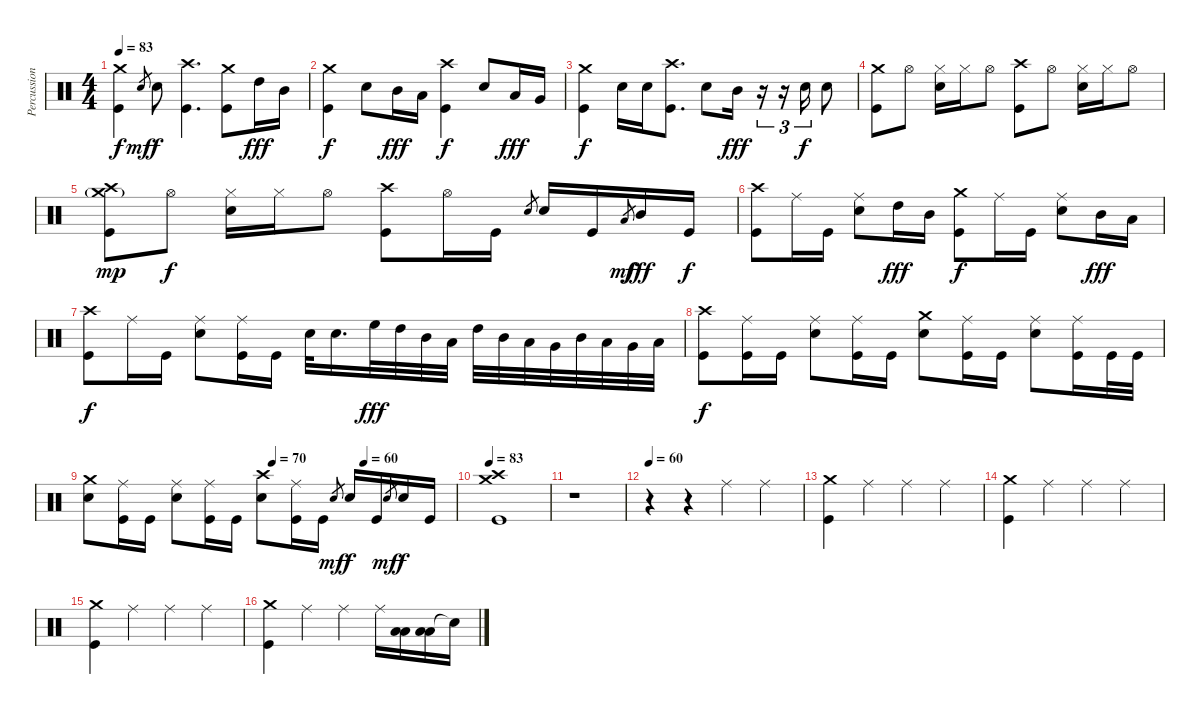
\track ("Percussions" "Percussion") {instrument percussion}
\staff {score}
\articulation defaults
\ts (4 4)
\tempo 83
\clef neutral
\ks c
("Crash medium (hit)" "Kick (hit)").4{dy f volume 16} "Electric Snare (hit)".8{gr dy mf} "Electric Snare (hit)".8{dy f} ("Crash high (hit)" "Kick (hit)").4{d} ("Crash medium (hit)" "Kick (hit)").8 "High Tom (hit)".16{dy fff volume 10} "Mid Tom (hit)".16 |
("Crash medium (hit)" "Kick (hit)").4{dy f volume 16} "Electric Snare (hit)".8 "Mid Tom (hit)".16{dy fff volume 10} "Low Tom (hit)".16 ("Crash high (hit)" "Kick (hit)").4{dy f volume 16} "Electric Snare (hit)".8 "Low Tom (hit)".16{dy fff volume 10} "Very Low Tom (hit)".16 |
("Crash medium (hit)" "Kick (hit)").4{dy f volume 16} "Electric Snare (hit)".16 "Electric Snare (hit)".16 ("Crash high (hit)" "Kick (hit)").8{d} "Electric Snare (hit)".8 "Mid Tom (hit)".16{dy fff volume 10} r.16{tu (3 2)} r.16{tu (3 2)} "Electric Snare (hit)".16{tu (3 2) dy f volume 16} "Electric Snare (hit)".8 |
("Crash medium (hit)" "Kick (hit)").8{volume 16} "Hi-Hat (open)".8 ("Hi-Hat (closed)" "Electric Snare (hit)").16 "Hi-Hat (closed)".16 "Hi-Hat (open)".8 ("Crash high (hit)" "Kick (hit)").8 "Hi-Hat (open)".8 ("Hi-Hat (closed)" "Electric Snare (hit)").16 "Hi-Hat (closed)".16 "Hi-Hat (open)".8 |
("Crash medium (hit)"{g} "Crash high (hit)" "Kick (hit)").8{dy mp} "Hi-Hat (open)".8{dy f} ("Hi-Hat (closed)" "Electric Snare (hit)").16 "Hi-Hat (closed)".16 "Hi-Hat (open)".8 ("Crash high (hit)" "Kick (hit)").8 "Hi-Hat (open)".16 "Kick (hit)".16 "Electric Snare (hit)".8{gr} "Electric Snare (hit)".16 "Kick (hit)".16 "Low Tom (hit)".8{gr dy mf} "Mid Tom (hit)".16{dy fff volume 10} "Kick (hit)".16{dy f} |
("Crash high (hit)" "Kick (hit)").8{volume 16} "Ride (middle)".16 "Kick (hit)".16 ("Ride (middle)" "Electric Snare (hit)").8 "High Tom (hit)".16{dy fff volume 10} "Mid Tom (hit)".16 ("Crash medium (hit)" "Kick (hit)").8{dy f volume 16} "Ride (middle)".16 "Kick (hit)".16 ("Ride (middle)" "Electric Snare (hit)").8 "Mid Tom (hit)".16{dy fff volume 10} "Low Tom (hit)".16 |
("Crash high (hit)" "Kick (hit)").8{dy f volume 16} "Ride (middle)".16 "Kick (hit)".16 ("Ride (middle)" "Electric Snare (hit)").8 ("Ride (middle)" "Kick (hit)").16 "Kick (hit)".16 "Electric Snare (hit)".32 "Electric Snare (hit)".16{d} "High Floor Tom (hit)".32{dy fff volume 10} "High Tom (hit)".32 "Mid Tom (hit)".32 "Low Tom (hit)".32 "High Tom (hit)".32 "Mid Tom (hit)".32 "Low Tom (hit)".32 "Very Low Tom (hit)".32 "Mid Tom (hit)".32 "Low Tom (hit)".32 "Very Low Tom (hit)".32 "Low Floor Tom (hit)".32 |
("Crash high (hit)" "Kick (hit)").8{dy f volume 16} ("Ride (middle)" "Kick (hit)").16 "Kick (hit)".16 ("Ride (middle)" "Electric Snare (hit)").8 ("Ride (middle)" "Kick (hit)").16 "Kick (hit)".16 ("Crash medium (hit)" "Electric Snare (hit)").8 ("Ride (middle)" "Kick (hit)").16 "Kick (hit)".16 ("Ride (middle)" "Electric Snare (hit)").8 ("Ride (middle)" "Kick (hit)").16 "Kick (hit)".32 "Kick (hit)".32 |
\tempo (70 0.5)
\tempo (60 0.75)
("Crash medium (hit)" "Electric Snare (hit)").8 ("Ride (middle)" "Kick (hit)").16 "Kick (hit)".16 ("Ride (middle)" "Electric Snare (hit)").8 ("Ride (middle)" "Kick (hit)").16 "Kick (hit)".16 ("Crash high (hit)" "Electric Snare (hit)").8 ("Ride (middle)" "Kick (hit)").16 "Kick (hit)".16 "Electric Snare (hit)".8{gr dy mf} "Electric Snare (hit)".16{dy f} "Kick (hit)".16 "Electric Snare (hit)".8{gr dy mf} "Electric Snare (hit)".16{dy f} "Kick (hit)".16 |
\tempo 83
("Crash medium (hit)" "Crash high (hit)" "Kick (hit)").1 |
r.1 |
\tempo 60
r.4 r.4 "Ride (middle)".4 "Ride (middle)".4 |
("Crash medium (hit)" "Kick (hit)").4{volume 16} "Ride (middle)".4 "Ride (middle)".4 "Ride (middle)".4 |
("Crash medium (hit)" "Kick (hit)").4 "Ride (middle)".4 "Ride (middle)".4 "Ride (middle)".4 |
("Crash medium (hit)" "Kick (hit)").4 "Ride (middle)".4 "Ride (middle)".4 "Ride (middle)".4 |
("Crash medium (hit)" "Kick (hit)").4 "Ride (middle)".4 "Ride (middle)".4 "Ride (middle)".16 ("Low Tom (hit)" "Low Tom (hit)").16{volume 12} ("Low Tom (hit)" "Low Tom (hit)").16 "Snare (hit)"{t}.16
